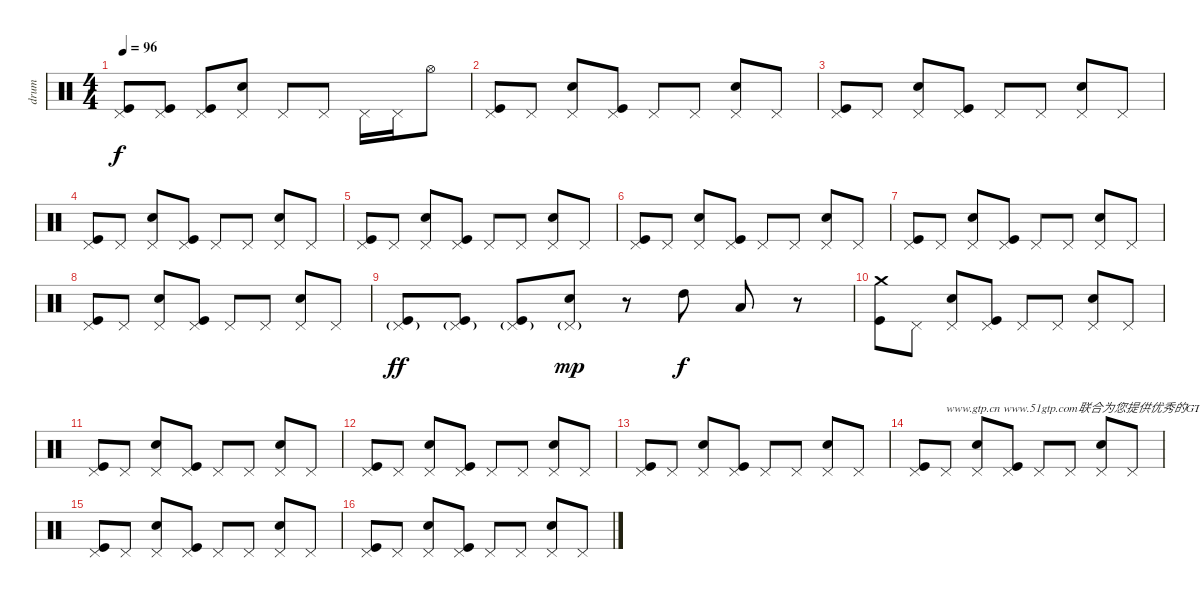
\track ("drum" "drum") {instrument percussion}
\staff {score}
\articulation defaults
\ts (4 4)
\tempo 96
\clef neutral
\ks c
("Pedal Hi-Hat (hit)" "Kick (hit)").8{dy f} ("Pedal Hi-Hat (hit)" "Kick (hit)").8 ("Pedal Hi-Hat (hit)" "Kick (hit)").8 ("Pedal Hi-Hat (hit)" "Electric Snare (hit)").8 "Pedal Hi-Hat (hit)".8 "Pedal Hi-Hat (hit)".8 "Pedal Hi-Hat (hit)".16 "Pedal Hi-Hat (hit)".16 "Hi-Hat (open)".8 |
("Pedal Hi-Hat (hit)" "Kick (hit)").8 "Pedal Hi-Hat (hit)".8 ("Pedal Hi-Hat (hit)" "Electric Snare (hit)").8 ("Pedal Hi-Hat (hit)" "Kick (hit)").8 "Pedal Hi-Hat (hit)".8 "Pedal Hi-Hat (hit)".8 ("Pedal Hi-Hat (hit)" "Electric Snare (hit)").8 "Pedal Hi-Hat (hit)".8 |
("Pedal Hi-Hat (hit)" "Kick (hit)").8 "Pedal Hi-Hat (hit)".8 ("Pedal Hi-Hat (hit)" "Electric Snare (hit)").8 ("Pedal Hi-Hat (hit)" "Kick (hit)").8 "Pedal Hi-Hat (hit)".8 "Pedal Hi-Hat (hit)".8 ("Pedal Hi-Hat (hit)" "Electric Snare (hit)").8 "Pedal Hi-Hat (hit)".8 |
("Pedal Hi-Hat (hit)" "Kick (hit)").8 "Pedal Hi-Hat (hit)".8 ("Pedal Hi-Hat (hit)" "Electric Snare (hit)").8 ("Pedal Hi-Hat (hit)" "Kick (hit)").8 "Pedal Hi-Hat (hit)".8 "Pedal Hi-Hat (hit)".8 ("Pedal Hi-Hat (hit)" "Electric Snare (hit)").8 "Pedal Hi-Hat (hit)".8 |
("Pedal Hi-Hat (hit)" "Kick (hit)").8 "Pedal Hi-Hat (hit)".8 ("Pedal Hi-Hat (hit)" "Electric Snare (hit)").8 ("Pedal Hi-Hat (hit)" "Kick (hit)").8 "Pedal Hi-Hat (hit)".8 "Pedal Hi-Hat (hit)".8 ("Pedal Hi-Hat (hit)" "Electric Snare (hit)").8 "Pedal Hi-Hat (hit)".8 |
("Pedal Hi-Hat (hit)" "Kick (hit)").8 "Pedal Hi-Hat (hit)".8 ("Pedal Hi-Hat (hit)" "Electric Snare (hit)").8 ("Pedal Hi-Hat (hit)" "Kick (hit)").8 "Pedal Hi-Hat (hit)".8 "Pedal Hi-Hat (hit)".8 ("Pedal Hi-Hat (hit)" "Electric Snare (hit)").8 "Pedal Hi-Hat (hit)".8 |
("Pedal Hi-Hat (hit)" "Kick (hit)").8 "Pedal Hi-Hat (hit)".8 ("Pedal Hi-Hat (hit)" "Electric Snare (hit)").8 ("Pedal Hi-Hat (hit)" "Kick (hit)").8 "Pedal Hi-Hat (hit)".8 "Pedal Hi-Hat (hit)".8 ("Pedal Hi-Hat (hit)" "Electric Snare (hit)").8 "Pedal Hi-Hat (hit)".8 |
("Pedal Hi-Hat (hit)" "Kick (hit)").8 "Pedal Hi-Hat (hit)".8 ("Pedal Hi-Hat (hit)" "Electric Snare (hit)").8 ("Pedal Hi-Hat (hit)" "Kick (hit)").8 "Pedal Hi-Hat (hit)".8 "Pedal Hi-Hat (hit)".8 ("Pedal Hi-Hat (hit)" "Electric Snare (hit)").8 "Pedal Hi-Hat (hit)".8 |
("Pedal Hi-Hat (hit)"{g} "Kick (hit)").8{dy ff} ("Pedal Hi-Hat (hit)"{g} "Kick (hit)").8 ("Pedal Hi-Hat (hit)"{g} "Kick (hit)").8 ("Pedal Hi-Hat (hit)"{g} "Electric Snare (hit)").8{dy mp} r.8 "High Tom (hit)".8{dy f} "Low Tom (hit)".8 r.8 |
("Crash medium (hit)" "Kick (hit)").8 "Pedal Hi-Hat (hit)".8 ("Pedal Hi-Hat (hit)" "Electric Snare (hit)").8 ("Pedal Hi-Hat (hit)" "Kick (hit)").8 "Pedal Hi-Hat (hit)".8 "Pedal Hi-Hat (hit)".8 ("Pedal Hi-Hat (hit)" "Electric Snare (hit)").8 "Pedal Hi-Hat (hit)".8 |
("Pedal Hi-Hat (hit)" "Kick (hit)").8 "Pedal Hi-Hat (hit)".8 ("Pedal Hi-Hat (hit)" "Electric Snare (hit)").8 ("Pedal Hi-Hat (hit)" "Kick (hit)").8 "Pedal Hi-Hat (hit)".8 "Pedal Hi-Hat (hit)".8 ("Pedal Hi-Hat (hit)" "Electric Snare (hit)").8 "Pedal Hi-Hat (hit)".8 |
("Pedal Hi-Hat (hit)" "Kick (hit)").8 "Pedal Hi-Hat (hit)".8 ("Pedal Hi-Hat (hit)" "Electric Snare (hit)").8 ("Pedal Hi-Hat (hit)" "Kick (hit)").8 "Pedal Hi-Hat (hit)".8 "Pedal Hi-Hat (hit)".8 ("Pedal Hi-Hat (hit)" "Electric Snare (hit)").8 "Pedal Hi-Hat (hit)".8 |
("Pedal Hi-Hat (hit)" "Kick (hit)").8 "Pedal Hi-Hat (hit)".8 ("Pedal Hi-Hat (hit)" "Electric Snare (hit)").8 ("Pedal Hi-Hat (hit)" "Kick (hit)").8 "Pedal Hi-Hat (hit)".8 "Pedal Hi-Hat (hit)".8 ("Pedal Hi-Hat (hit)" "Electric Snare (hit)").8 "Pedal Hi-Hat (hit)".8 |
("Pedal Hi-Hat (hit)" "Kick (hit)").8 "Pedal Hi-Hat (hit)".8{txt "www.gtp.cn www.51gtp.com联合为您提供优秀的GTP!"} ("Pedal Hi-Hat (hit)" "Electric Snare (hit)").8 ("Pedal Hi-Hat (hit)" "Kick (hit)").8 "Pedal Hi-Hat (hit)".8 "Pedal Hi-Hat (hit)".8 ("Pedal Hi-Hat (hit)" "Electric Snare (hit)").8 "Pedal Hi-Hat (hit)".8 |
("Pedal Hi-Hat (hit)" "Kick (hit)").8 "Pedal Hi-Hat (hit)".8 ("Pedal Hi-Hat (hit)" "Electric Snare (hit)").8 ("Pedal Hi-Hat (hit)" "Kick (hit)").8 "Pedal Hi-Hat (hit)".8 "Pedal Hi-Hat (hit)".8 ("Pedal Hi-Hat (hit)" "Electric Snare (hit)").8 "Pedal Hi-Hat (hit)".8 |
("Pedal Hi-Hat (hit)" "Kick (hit)").8 "Pedal Hi-Hat (hit)".8 ("Pedal Hi-Hat (hit)" "Electric Snare (hit)").8 ("Pedal Hi-Hat (hit)" "Kick (hit)").8 "Pedal Hi-Hat (hit)".8 "Pedal Hi-Hat (hit)".8 ("Pedal Hi-Hat (hit)" "Electric Snare (hit)").8 "Pedal Hi-Hat (hit)".8
